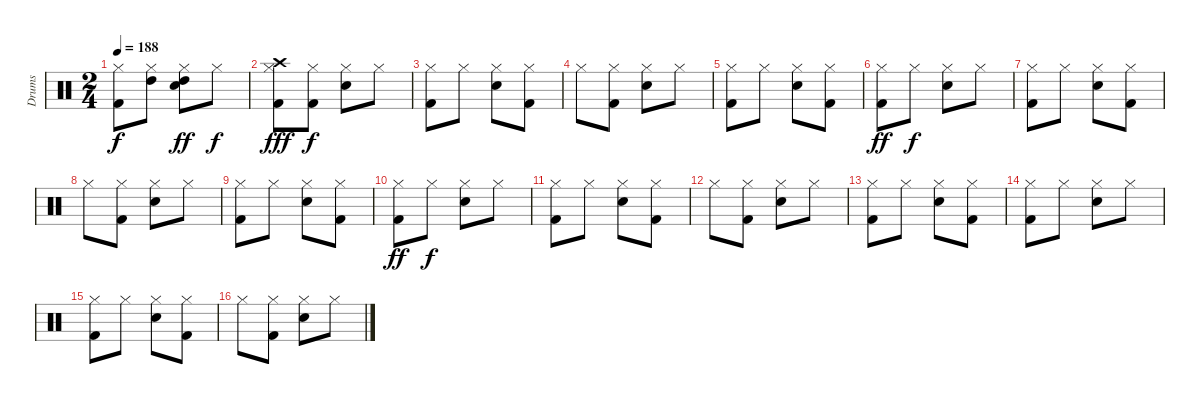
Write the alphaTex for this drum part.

\track ("Drums" "Drums") {instrument percussion}
\staff {score}
\articulation defaults
\ts (2 4)
\tempo 188
\clef neutral
\ks c
("Hi-Hat (closed)" "Kick (hit) 2").8{dy f} ("Hi-Hat (closed)" "High Tom (hit)").8 ("Hi-Hat (closed)" "Snare (hit) 2" "High Tom (hit)").8{dy ff} "Hi-Hat (closed)".8{dy f} |
("Crash high (hit)" "Hi-Hat (closed)" "Kick (hit) 2").8{dy fff} ("Hi-Hat (closed)" "Kick (hit) 2").8{dy f} ("Hi-Hat (closed)" "Snare (hit) 2").8 "Hi-Hat (closed)".8 |
("Hi-Hat (closed)" "Kick (hit) 2").8 "Hi-Hat (closed)".8 ("Hi-Hat (closed)" "Snare (hit) 2").8 ("Hi-Hat (closed)" "Kick (hit) 2").8 |
"Hi-Hat (closed)".8 ("Hi-Hat (closed)" "Kick (hit) 2").8 ("Hi-Hat (closed)" "Snare (hit) 2").8 "Hi-Hat (closed)".8 |
("Hi-Hat (closed)" "Kick (hit) 2").8 "Hi-Hat (closed)".8 ("Hi-Hat (closed)" "Snare (hit) 2").8 ("Hi-Hat (closed)" "Kick (hit) 2").8 |
("Hi-Hat (closed)" "Kick (hit) 2").8{dy ff} "Hi-Hat (closed)".8{dy f} ("Hi-Hat (closed)" "Snare (hit) 2").8 "Hi-Hat (closed)".8 |
("Hi-Hat (closed)" "Kick (hit) 2").8 "Hi-Hat (closed)".8 ("Hi-Hat (closed)" "Snare (hit) 2").8 ("Hi-Hat (closed)" "Kick (hit) 2").8 |
"Hi-Hat (closed)".8 ("Hi-Hat (closed)" "Kick (hit) 2").8 ("Hi-Hat (closed)" "Snare (hit) 2").8 "Hi-Hat (closed)".8 |
("Hi-Hat (closed)" "Kick (hit) 2").8 "Hi-Hat (closed)".8 ("Hi-Hat (closed)" "Snare (hit) 2").8 ("Hi-Hat (closed)" "Kick (hit) 2").8 |
("Hi-Hat (closed)" "Kick (hit) 2").8{dy ff} "Hi-Hat (closed)".8{dy f} ("Hi-Hat (closed)" "Snare (hit) 2").8 "Hi-Hat (closed)".8 |
("Hi-Hat (closed)" "Kick (hit) 2").8 "Hi-Hat (closed)".8 ("Hi-Hat (closed)" "Snare (hit) 2").8 ("Hi-Hat (closed)" "Kick (hit) 2").8 |
"Hi-Hat (closed)".8 ("Hi-Hat (closed)" "Kick (hit) 2").8 ("Hi-Hat (closed)" "Snare (hit) 2").8 "Hi-Hat (closed)".8 |
("Hi-Hat (closed)" "Kick (hit) 2").8 "Hi-Hat (closed)".8 ("Hi-Hat (closed)" "Snare (hit) 2").8 ("Hi-Hat (closed)" "Kick (hit) 2").8 |
("Hi-Hat (closed)" "Kick (hit) 2").8 "Hi-Hat (closed)".8 ("Hi-Hat (closed)" "Snare (hit) 2").8 "Hi-Hat (closed)".8 |
("Hi-Hat (closed)" "Kick (hit) 2").8 "Hi-Hat (closed)".8 ("Hi-Hat (closed)" "Snare (hit) 2").8 ("Hi-Hat (closed)" "Kick (hit) 2").8 |
"Hi-Hat (closed)".8 ("Hi-Hat (closed)" "Kick (hit) 2").8 ("Hi-Hat (closed)" "Snare (hit) 2").8 "Hi-Hat (closed)".8
